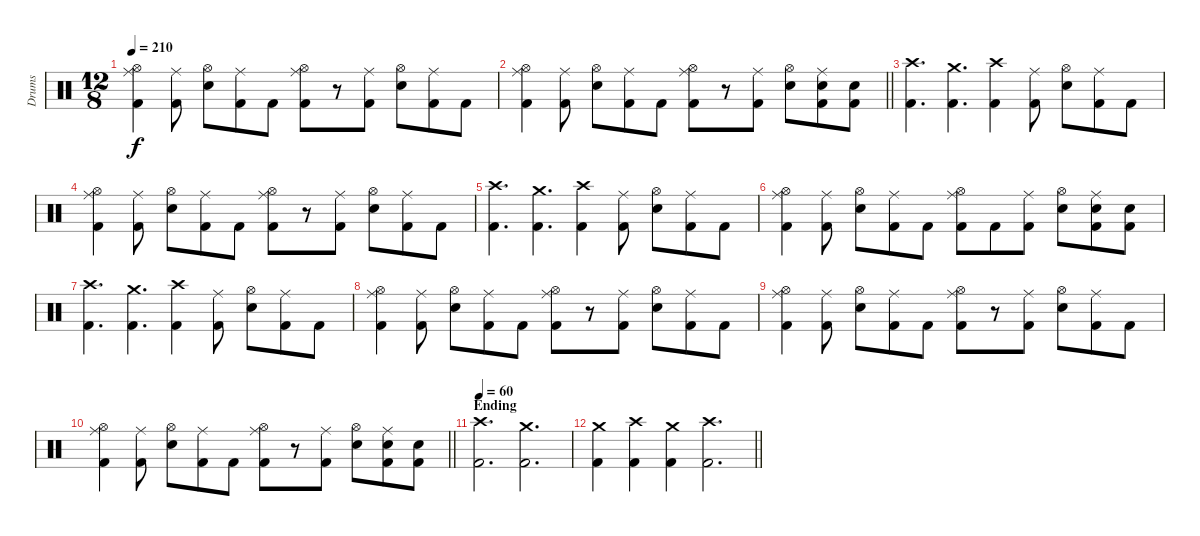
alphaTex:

\track ("Drums" "Drums") {instrument percussion}
\staff {score}
\articulation defaults
\ts (12 8)
\tempo 210
\clef neutral
\ks c
("Ride (middle)" "Hi-Hat (open)" "Kick (hit) 2").4{dy f} ("Ride (middle)" "Kick (hit) 2").8 ("Hi-Hat (open)" "Snare (hit) 2").8 ("Ride (middle)" "Kick (hit) 2").8 "Kick (hit) 2".8 ("Ride (middle)" "Hi-Hat (open)" "Kick (hit) 2").8 r.8 ("Ride (middle)" "Kick (hit) 2").8 ("Hi-Hat (open)" "Snare (hit) 2").8 ("Ride (middle)" "Kick (hit) 2").8 "Kick (hit) 2".8 |
\barLineRight lightlight
("Ride (middle)" "Hi-Hat (open)" "Kick (hit) 2").4 ("Ride (middle)" "Kick (hit) 2").8 ("Hi-Hat (open)" "Snare (hit) 2").8 ("Ride (middle)" "Kick (hit) 2").8 "Kick (hit) 2".8 ("Ride (middle)" "Hi-Hat (open)" "Kick (hit) 2").8 r.8 ("Ride (middle)" "Kick (hit) 2").8 ("Hi-Hat (open)" "Snare (hit) 2").8 ("Ride (middle)" "Snare (hit) 2" "Kick (hit) 2").8 ("Snare (hit) 2" "Kick (hit) 2").8 |
("Crash high (hit)" "Kick (hit) 2").4{d} ("Crash medium (hit)" "Kick (hit) 2").4{d} ("Crash high (hit)" "Kick (hit) 2").4 ("Ride (middle)" "Kick (hit) 2").8 ("Hi-Hat (open)" "Snare (hit) 2").8 ("Ride (middle)" "Kick (hit) 2").8 "Kick (hit) 2".8 |
("Ride (middle)" "Hi-Hat (open)" "Kick (hit) 2").4 ("Ride (middle)" "Kick (hit) 2").8 ("Hi-Hat (open)" "Snare (hit) 2").8 ("Ride (middle)" "Kick (hit) 2").8 "Kick (hit) 2".8 ("Ride (middle)" "Hi-Hat (open)" "Kick (hit) 2").8 r.8 ("Ride (middle)" "Kick (hit) 2").8 ("Hi-Hat (open)" "Snare (hit) 2").8 ("Ride (middle)" "Kick (hit) 2").8 "Kick (hit) 2".8 |
("Crash high (hit)" "Kick (hit) 2").4{d} ("Crash medium (hit)" "Kick (hit) 2").4{d} ("Crash high (hit)" "Kick (hit) 2").4 ("Ride (middle)" "Kick (hit) 2").8 ("Hi-Hat (open)" "Snare (hit) 2").8 ("Ride (middle)" "Kick (hit) 2").8 "Kick (hit) 2".8 |
("Ride (middle)" "Hi-Hat (open)" "Kick (hit) 2").4 ("Ride (middle)" "Kick (hit) 2").8 ("Hi-Hat (open)" "Snare (hit) 2").8 ("Ride (middle)" "Kick (hit) 2").8 "Kick (hit) 2".8 ("Ride (middle)" "Hi-Hat (open)" "Kick (hit) 2").8 "Kick (hit) 2".8 ("Ride (middle)" "Kick (hit) 2").8 ("Hi-Hat (open)" "Snare (hit) 2").8 ("Ride (middle)" "Snare (hit) 2" "Kick (hit) 2").8 ("Snare (hit) 2" "Kick (hit) 2").8 |
("Crash high (hit)" "Kick (hit) 2").4{d} ("Crash medium (hit)" "Kick (hit) 2").4{d} ("Crash high (hit)" "Kick (hit) 2").4 ("Ride (middle)" "Kick (hit) 2").8 ("Hi-Hat (open)" "Snare (hit) 2").8 ("Ride (middle)" "Kick (hit) 2").8 "Kick (hit) 2".8 |
("Ride (middle)" "Hi-Hat (open)" "Kick (hit) 2").4 ("Ride (middle)" "Kick (hit) 2").8 ("Hi-Hat (open)" "Snare (hit) 2").8 ("Ride (middle)" "Kick (hit) 2").8 "Kick (hit) 2".8 ("Ride (middle)" "Hi-Hat (open)" "Kick (hit) 2").8 r.8 ("Ride (middle)" "Kick (hit) 2").8 ("Hi-Hat (open)" "Snare (hit) 2").8 ("Ride (middle)" "Kick (hit) 2").8 "Kick (hit) 2".8 |
("Ride (middle)" "Hi-Hat (open)" "Kick (hit) 2").4 ("Ride (middle)" "Kick (hit) 2").8 ("Hi-Hat (open)" "Snare (hit) 2").8 ("Ride (middle)" "Kick (hit) 2").8 "Kick (hit) 2".8 ("Ride (middle)" "Hi-Hat (open)" "Kick (hit) 2").8 r.8 ("Ride (middle)" "Kick (hit) 2").8 ("Hi-Hat (open)" "Snare (hit) 2").8 ("Ride (middle)" "Kick (hit) 2").8 "Kick (hit) 2".8 |
\barLineRight lightlight
("Ride (middle)" "Hi-Hat (open)" "Kick (hit) 2").4 ("Ride (middle)" "Kick (hit) 2").8 ("Hi-Hat (open)" "Snare (hit) 2").8 ("Ride (middle)" "Kick (hit) 2").8 "Kick (hit) 2".8 ("Ride (middle)" "Hi-Hat (open)" "Kick (hit) 2").8 r.8 ("Ride (middle)" "Kick (hit) 2").8 ("Hi-Hat (open)" "Snare (hit) 2").8 ("Ride (middle)" "Snare (hit) 2" "Kick (hit) 2").8 ("Snare (hit) 2" "Kick (hit) 2").8 |
\section ("" "Ending")
\tempo 60
("Crash high (hit)" "Kick (hit) 2").2{d} ("Crash medium (hit)" "Kick (hit) 2").2{d} |
\barLineRight lightlight
("Crash medium (hit)" "Kick (hit) 2").4 ("Crash high (hit)" "Kick (hit) 2").4 ("Crash medium (hit)" "Kick (hit) 2").4 ("Crash high (hit)" "Kick (hit) 2").2{d}
